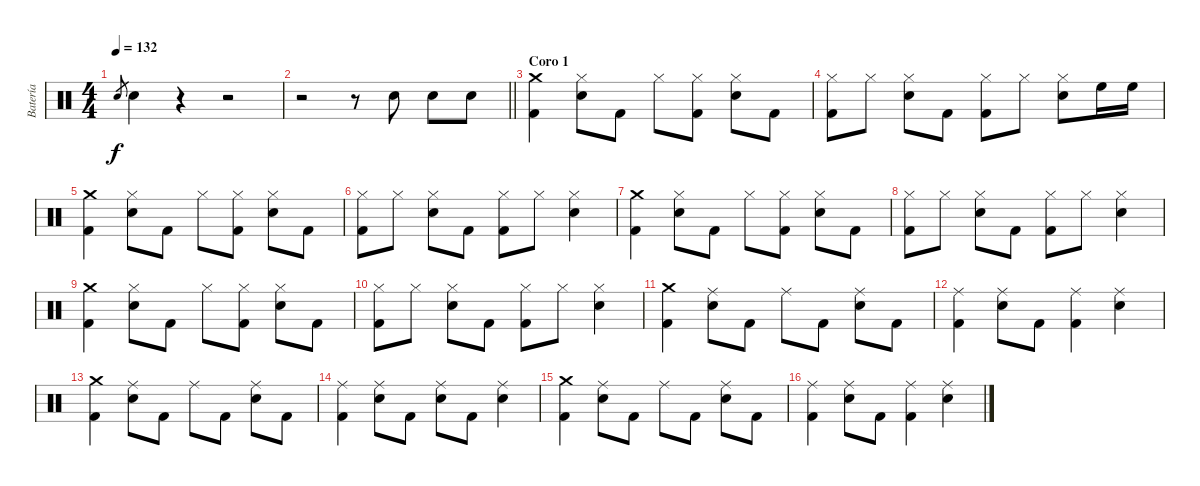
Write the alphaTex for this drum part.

\track ("Batería" "Batería") {instrument percussion}
\staff {score}
\articulation defaults
\ts (4 4)
\tempo 132
\clef neutral
\ks aminor "Electric Snare (hit)".8{gr dy f} "Electric Snare (hit)".4
r.4 r.2 |
\barLineRight lightlight
r.2 r.8 "Electric Snare (hit)".8 "Electric Snare (hit)".8 "Electric Snare (hit)".8 |
\section ("" "Coro 1")
("Crash medium (hit)" "Kick (hit) 2").4 ("Hi-Hat (closed)" "Electric Snare (hit)").8 "Kick (hit) 2".8 "Hi-Hat (closed)".8 ("Hi-Hat (closed)" "Kick (hit) 2").8 ("Hi-Hat (closed)" "Electric Snare (hit)").8 "Kick (hit) 2".8 |
("Hi-Hat (closed)" "Kick (hit) 2").8 "Hi-Hat (closed)".8 ("Hi-Hat (closed)" "Electric Snare (hit)").8 "Kick (hit) 2".8 ("Hi-Hat (closed)" "Kick (hit) 2").8 "Hi-Hat (closed)".8 ("Hi-Hat (closed)" "Electric Snare (hit)").8 "High Floor Tom (hit)".16 "High Floor Tom (hit)".16 |
("Crash medium (hit)" "Kick (hit) 2").4 ("Hi-Hat (closed)" "Electric Snare (hit)").8 "Kick (hit) 2".8 "Hi-Hat (closed)".8 ("Hi-Hat (closed)" "Kick (hit) 2").8 ("Hi-Hat (closed)" "Electric Snare (hit)").8 "Kick (hit) 2".8 |
("Hi-Hat (closed)" "Kick (hit) 2").8 "Hi-Hat (closed)".8 ("Hi-Hat (closed)" "Electric Snare (hit)").8 "Kick (hit) 2".8 ("Hi-Hat (closed)" "Kick (hit) 2").8 "Hi-Hat (closed)".8 ("Hi-Hat (closed)" "Electric Snare (hit)").4 |
("Crash medium (hit)" "Kick (hit) 2").4 ("Hi-Hat (closed)" "Electric Snare (hit)").8 "Kick (hit) 2".8 "Hi-Hat (closed)".8 ("Hi-Hat (closed)" "Kick (hit) 2").8 ("Hi-Hat (closed)" "Electric Snare (hit)").8 "Kick (hit) 2".8 |
("Hi-Hat (closed)" "Kick (hit) 2").8 "Hi-Hat (closed)".8 ("Hi-Hat (closed)" "Electric Snare (hit)").8 "Kick (hit) 2".8 ("Hi-Hat (closed)" "Kick (hit) 2").8 "Hi-Hat (closed)".8 ("Hi-Hat (closed)" "Electric Snare (hit)").4 |
("Crash medium (hit)" "Kick (hit) 2").4 ("Hi-Hat (closed)" "Electric Snare (hit)").8 "Kick (hit) 2".8 "Hi-Hat (closed)".8 ("Hi-Hat (closed)" "Kick (hit) 2").8 ("Hi-Hat (closed)" "Electric Snare (hit)").8 "Kick (hit) 2".8 |
("Hi-Hat (closed)" "Kick (hit) 2").8 "Hi-Hat (closed)".8 ("Hi-Hat (closed)" "Electric Snare (hit)").8 "Kick (hit) 2".8 ("Hi-Hat (closed)" "Kick (hit) 2").8 "Hi-Hat (closed)".8 ("Hi-Hat (closed)" "Electric Snare (hit)").4 |
("Crash medium (hit)" "Kick (hit) 2").4 ("Ride (middle)" "Electric Snare (hit)").8 "Kick (hit) 2".8 "Ride (middle)".8 "Kick (hit) 2".8 ("Ride (middle)" "Electric Snare (hit)").8 "Kick (hit) 2".8 |
("Ride (middle)" "Kick (hit) 2").4 ("Ride (middle)" "Electric Snare (hit)").8 "Kick (hit) 2".8 ("Ride (middle)" "Kick (hit) 2").4 ("Ride (middle)" "Electric Snare (hit)").4 |
("Crash medium (hit)" "Kick (hit) 2").4 ("Ride (middle)" "Electric Snare (hit)").8 "Kick (hit) 2".8 "Ride (middle)".8 "Kick (hit) 2".8 ("Ride (middle)" "Electric Snare (hit)").8 "Kick (hit) 2".8 |
("Ride (middle)" "Kick (hit) 2").4 ("Ride (middle)" "Electric Snare (hit)").8 "Kick (hit) 2".8 ("Ride (middle)" "Electric Snare (hit)").8 "Kick (hit) 2".8 ("Ride (middle)" "Electric Snare (hit)").4 |
("Crash medium (hit)" "Kick (hit) 2").4 ("Ride (middle)" "Electric Snare (hit)").8 "Kick (hit) 2".8 "Ride (middle)".8 "Kick (hit) 2".8 ("Ride (middle)" "Electric Snare (hit)").8 "Kick (hit) 2".8 |
("Ride (middle)" "Kick (hit) 2").4 ("Ride (middle)" "Electric Snare (hit)").8 "Kick (hit) 2".8 ("Ride (middle)" "Kick (hit) 2").4 ("Ride (middle)" "Electric Snare (hit)").4
